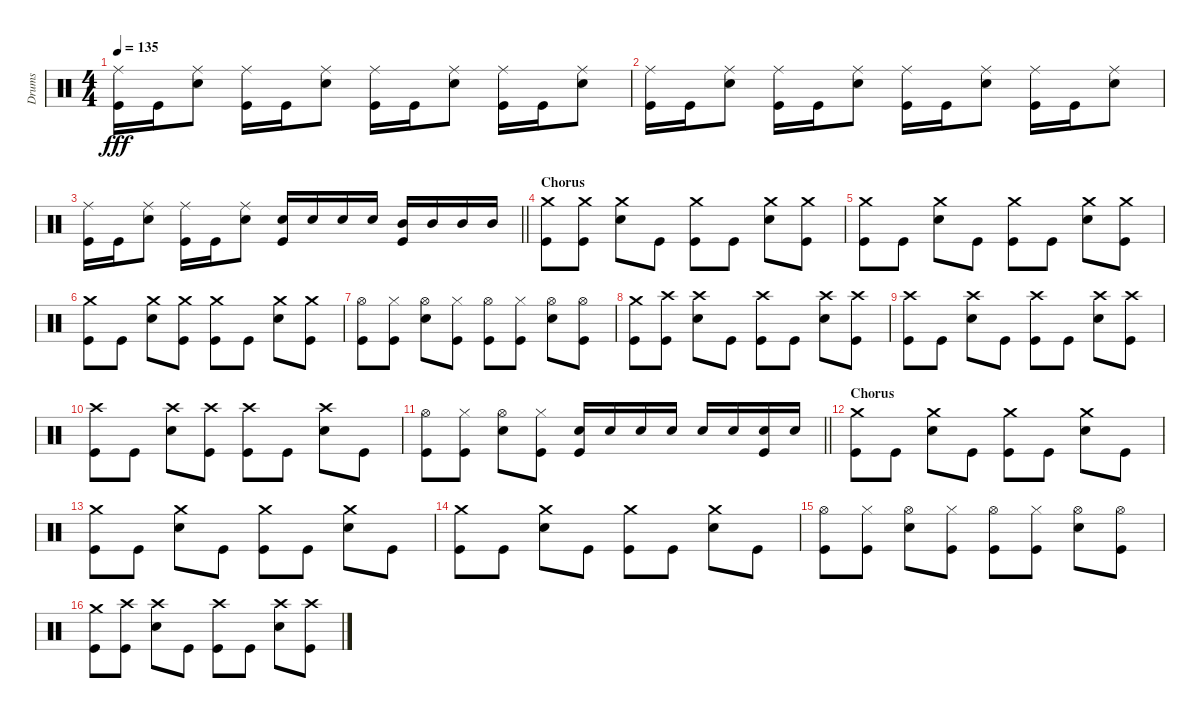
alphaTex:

\track ("Drums" "Drums") {instrument percussion}
\staff {score}
\articulation defaults
\ts (4 4)
\tempo 135
\clef neutral
\ks c
("Ride (middle)" "Kick (hit)").16{dy fff} "Kick (hit)".16 ("Ride (middle)" "Snare (hit) 2").8 ("Ride (middle)" "Kick (hit)").16 "Kick (hit)".16 ("Ride (middle)" "Snare (hit) 2").8 ("Ride (middle)" "Kick (hit)").16 "Kick (hit)".16 ("Ride (middle)" "Snare (hit) 2").8 ("Ride (middle)" "Kick (hit)").16 "Kick (hit)".16 ("Ride (middle)" "Snare (hit) 2").8 |
("Ride (middle)" "Kick (hit)").16 "Kick (hit)".16 ("Ride (middle)" "Snare (hit) 2").8 ("Ride (middle)" "Kick (hit)").16 "Kick (hit)".16 ("Ride (middle)" "Snare (hit) 2").8 ("Ride (middle)" "Kick (hit)").16 "Kick (hit)".16 ("Ride (middle)" "Snare (hit) 2").8 ("Ride (middle)" "Kick (hit)").16 "Kick (hit)".16 ("Ride (middle)" "Snare (hit) 2").8 |
\barLineRight lightlight
("Ride (middle)" "Kick (hit)").16 "Kick (hit)".16 ("Ride (middle)" "Snare (hit) 2").8 ("Ride (middle)" "Kick (hit)").16 "Kick (hit)".16 ("Ride (middle)" "Snare (hit) 2").8 ("Snare (hit) 2" "Kick (hit)").16 "Snare (hit) 2".16 "Snare (hit) 2".16 "Snare (hit) 2".16 ("Mid Tom (hit)" "Kick (hit)").16 "Mid Tom (hit)".16 "Mid Tom (hit)".16 "Mid Tom (hit)".16 |
\section ("" "Chorus")
("Crash medium (hit)" "Kick (hit)").8 ("Crash medium (hit)" "Kick (hit)").8 ("Crash medium (hit)" "Snare (hit) 2").8 "Kick (hit)".8 ("Crash medium (hit)" "Kick (hit)").8 "Kick (hit)".8 ("Crash medium (hit)" "Snare (hit) 2").8 ("Crash medium (hit)" "Kick (hit)").8 |
("Crash medium (hit)" "Kick (hit)").8 "Kick (hit)".8 ("Crash medium (hit)" "Snare (hit) 2").8 "Kick (hit)".8 ("Crash medium (hit)" "Kick (hit)").8 "Kick (hit)".8 ("Crash medium (hit)" "Snare (hit) 2").8 ("Crash medium (hit)" "Kick (hit)").8 |
("Crash medium (hit)" "Kick (hit)").8 "Kick (hit)".8 ("Crash medium (hit)" "Snare (hit) 2").8 ("Crash medium (hit)" "Kick (hit)").8 ("Crash medium (hit)" "Kick (hit)").8 "Kick (hit)".8 ("Crash medium (hit)" "Snare (hit) 2").8 ("Crash medium (hit)" "Kick (hit)").8 |
("Hi-Hat (open)" "Kick (hit)").8 ("Hi-Hat (closed)" "Kick (hit)").8 ("Hi-Hat (open)" "Snare (hit) 2").8 ("Hi-Hat (closed)" "Kick (hit)").8 ("Hi-Hat (open)" "Kick (hit)").8 ("Hi-Hat (closed)" "Kick (hit)").8 ("Hi-Hat (open)" "Snare (hit) 2").8 ("Hi-Hat (open)" "Kick (hit)").8 |
("Crash medium (hit)" "Kick (hit)").8 ("Crash high (hit)" "Kick (hit)").8 ("Crash high (hit)" "Snare (hit) 2").8 "Kick (hit)".8 ("Crash high (hit)" "Kick (hit)").8 "Kick (hit)".8 ("Crash high (hit)" "Snare (hit) 2").8 ("Crash high (hit)" "Kick (hit)").8 |
("Crash high (hit)" "Kick (hit)").8 "Kick (hit)".8 ("Crash high (hit)" "Snare (hit) 2").8 "Kick (hit)".8 ("Crash high (hit)" "Kick (hit)").8 "Kick (hit)".8 ("Crash high (hit)" "Snare (hit) 2").8 ("Crash high (hit)" "Kick (hit)").8 |
("Crash high (hit)" "Kick (hit)").8 "Kick (hit)".8 ("Crash high (hit)" "Snare (hit) 2").8 ("Crash high (hit)" "Kick (hit)").8 ("Crash high (hit)" "Kick (hit)").8 "Kick (hit)".8 ("Crash high (hit)" "Snare (hit) 2").8 "Kick (hit)".8 |
\barLineRight lightlight
("Hi-Hat (open)" "Kick (hit)").8 ("Hi-Hat (closed)" "Kick (hit)").8 ("Hi-Hat (open)" "Snare (hit) 2").8 ("Hi-Hat (closed)" "Kick (hit)").8 ("Snare (hit) 2" "Kick (hit)").16 "Snare (hit) 2".16 "Snare (hit) 2".16 "Snare (hit) 2".16 "Snare (hit) 2".16 "Snare (hit) 2".16 ("Snare (hit) 2" "Kick (hit)").16 "Snare (hit) 2".16 |
\section ("" "Chorus")
("Crash medium (hit)" "Kick (hit)").8 "Kick (hit)".8 ("Crash medium (hit)" "Snare (hit) 2").8 "Kick (hit)".8 ("Crash medium (hit)" "Kick (hit)").8 "Kick (hit)".8 ("Crash medium (hit)" "Snare (hit) 2").8 "Kick (hit)".8 |
("Crash medium (hit)" "Kick (hit)").8 "Kick (hit)".8 ("Crash medium (hit)" "Snare (hit) 2").8 "Kick (hit)".8 ("Crash medium (hit)" "Kick (hit)").8 "Kick (hit)".8 ("Crash medium (hit)" "Snare (hit) 2").8 "Kick (hit)".8 |
("Crash medium (hit)" "Kick (hit)").8 "Kick (hit)".8 ("Crash medium (hit)" "Snare (hit) 2").8 "Kick (hit)".8 ("Crash medium (hit)" "Kick (hit)").8 "Kick (hit)".8 ("Crash medium (hit)" "Snare (hit) 2").8 "Kick (hit)".8 |
("Hi-Hat (open)" "Kick (hit)").8 ("Hi-Hat (closed)" "Kick (hit)").8 ("Hi-Hat (open)" "Snare (hit) 2").8 ("Hi-Hat (closed)" "Kick (hit)").8 ("Hi-Hat (open)" "Kick (hit)").8 ("Hi-Hat (closed)" "Kick (hit)").8 ("Hi-Hat (open)" "Snare (hit) 2").8 ("Hi-Hat (open)" "Kick (hit)").8 |
("Crash medium (hit)" "Kick (hit)").8 ("Crash high (hit)" "Kick (hit)").8 ("Crash high (hit)" "Snare (hit) 2").8 "Kick (hit)".8 ("Crash high (hit)" "Kick (hit)").8 "Kick (hit)".8 ("Crash high (hit)" "Snare (hit) 2").8 ("Crash high (hit)" "Kick (hit)").8
